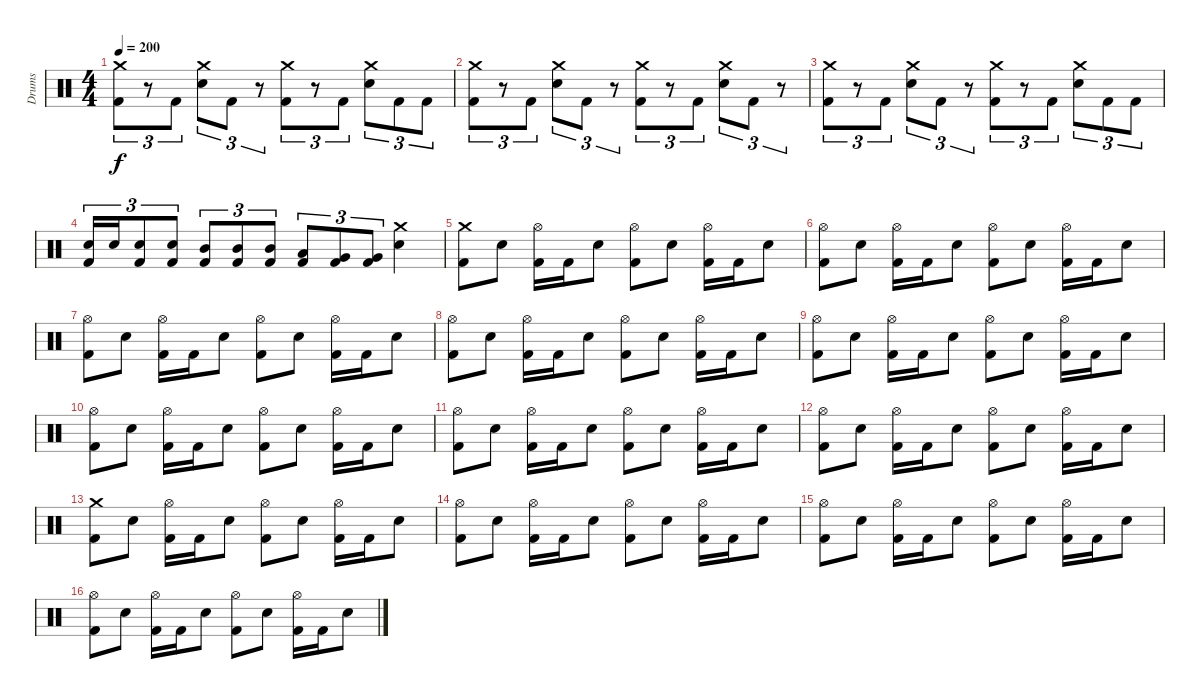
\track ("Drums" "Drums") {instrument percussion}
\staff {score}
\articulation defaults
\ts (4 4)
\tempo 200
\clef neutral
\ks c
("Crash medium (hit)" "Kick (hit) 2").8{tu (3 2) dy f} r.8{tu (3 2)} "Kick (hit) 2".8{tu (3 2)} ("Crash medium (hit)" "Electric Snare (hit)").8{tu (3 2)} "Kick (hit) 2".8{tu (3 2)} r.8{tu (3 2)} ("Crash medium (hit)" "Kick (hit) 2").8{tu (3 2)} r.8{tu (3 2)} "Kick (hit) 2".8{tu (3 2)} ("Crash medium (hit)" "Electric Snare (hit)").8{tu (3 2)} "Kick (hit) 2".8{tu (3 2)} "Kick (hit) 2".8{tu (3 2)} |
("Crash medium (hit)" "Kick (hit) 2").8{tu (3 2)} r.8{tu (3 2)} "Kick (hit) 2".8{tu (3 2)} ("Crash medium (hit)" "Electric Snare (hit)").8{tu (3 2)} "Kick (hit) 2".8{tu (3 2)} r.8{tu (3 2)} ("Crash medium (hit)" "Kick (hit) 2").8{tu (3 2)} r.8{tu (3 2)} "Kick (hit) 2".8{tu (3 2)} ("Crash medium (hit)" "Electric Snare (hit)").8{tu (3 2)} "Kick (hit) 2".8{tu (3 2)} r.8{tu (3 2)} |
("Crash medium (hit)" "Kick (hit) 2").8{tu (3 2)} r.8{tu (3 2)} "Kick (hit) 2".8{tu (3 2)} ("Crash medium (hit)" "Electric Snare (hit)").8{tu (3 2)} "Kick (hit) 2".8{tu (3 2)} r.8{tu (3 2)} ("Crash medium (hit)" "Kick (hit) 2").8{tu (3 2)} r.8{tu (3 2)} "Kick (hit) 2".8{tu (3 2)} ("Crash medium (hit)" "Electric Snare (hit)").8{tu (3 2)} "Kick (hit) 2".8{tu (3 2)} "Kick (hit) 2".8{tu (3 2)} |
("Electric Snare (hit)" "Kick (hit) 2").16{tu (3 2)} "Electric Snare (hit)".16{tu (3 2)} ("Electric Snare (hit)" "Kick (hit) 2").8{tu (3 2)} ("Electric Snare (hit)" "Kick (hit) 2").8{tu (3 2)} ("Mid Tom (hit)" "Kick (hit) 2").8{tu (3 2)} ("Mid Tom (hit)" "Kick (hit) 2").8{tu (3 2)} ("Mid Tom (hit)" "Kick (hit) 2").8{tu (3 2)} ("Low Tom (hit)" "Kick (hit) 2").8{tu (3 2)} ("Very Low Tom (hit)" "Kick (hit) 2").8{tu (3 2)} ("Very Low Tom (hit)" "Kick (hit) 2").8{tu (3 2)} ("Crash medium (hit)" "Electric Snare (hit)").4 |
("Crash medium (hit)" "Kick (hit) 2").8 "Electric Snare (hit)".8 ("Hi-Hat (open)" "Kick (hit) 2").16 "Kick (hit) 2".16 "Electric Snare (hit)".8 ("Hi-Hat (open)" "Kick (hit) 2").8 "Electric Snare (hit)".8 ("Hi-Hat (open)" "Kick (hit) 2").16 "Kick (hit) 2".16 "Electric Snare (hit)".8 |
("Hi-Hat (open)" "Kick (hit) 2").8 "Electric Snare (hit)".8 ("Hi-Hat (open)" "Kick (hit) 2").16 "Kick (hit) 2".16 "Electric Snare (hit)".8 ("Hi-Hat (open)" "Kick (hit) 2").8 "Electric Snare (hit)".8 ("Hi-Hat (open)" "Kick (hit) 2").16 "Kick (hit) 2".16 "Electric Snare (hit)".8 |
("Hi-Hat (open)" "Kick (hit) 2").8 "Electric Snare (hit)".8 ("Hi-Hat (open)" "Kick (hit) 2").16 "Kick (hit) 2".16 "Electric Snare (hit)".8 ("Hi-Hat (open)" "Kick (hit) 2").8 "Electric Snare (hit)".8 ("Hi-Hat (open)" "Kick (hit) 2").16 "Kick (hit) 2".16 "Electric Snare (hit)".8 |
("Hi-Hat (open)" "Kick (hit) 2").8 "Electric Snare (hit)".8 ("Hi-Hat (open)" "Kick (hit) 2").16 "Kick (hit) 2".16 "Electric Snare (hit)".8 ("Hi-Hat (open)" "Kick (hit) 2").8 "Electric Snare (hit)".8 ("Hi-Hat (open)" "Kick (hit) 2").16 "Kick (hit) 2".16 "Electric Snare (hit)".8 |
("Hi-Hat (open)" "Kick (hit) 2").8 "Electric Snare (hit)".8 ("Hi-Hat (open)" "Kick (hit) 2").16 "Kick (hit) 2".16 "Electric Snare (hit)".8 ("Hi-Hat (open)" "Kick (hit) 2").8 "Electric Snare (hit)".8 ("Hi-Hat (open)" "Kick (hit) 2").16 "Kick (hit) 2".16 "Electric Snare (hit)".8 |
("Hi-Hat (open)" "Kick (hit) 2").8 "Electric Snare (hit)".8 ("Hi-Hat (open)" "Kick (hit) 2").16 "Kick (hit) 2".16 "Electric Snare (hit)".8 ("Hi-Hat (open)" "Kick (hit) 2").8 "Electric Snare (hit)".8 ("Hi-Hat (open)" "Kick (hit) 2").16 "Kick (hit) 2".16 "Electric Snare (hit)".8 |
("Hi-Hat (open)" "Kick (hit) 2").8 "Electric Snare (hit)".8 ("Hi-Hat (open)" "Kick (hit) 2").16 "Kick (hit) 2".16 "Electric Snare (hit)".8 ("Hi-Hat (open)" "Kick (hit) 2").8 "Electric Snare (hit)".8 ("Hi-Hat (open)" "Kick (hit) 2").16 "Kick (hit) 2".16 "Electric Snare (hit)".8 |
("Hi-Hat (open)" "Kick (hit) 2").8 "Electric Snare (hit)".8 ("Hi-Hat (open)" "Kick (hit) 2").16 "Kick (hit) 2".16 "Electric Snare (hit)".8 ("Hi-Hat (open)" "Kick (hit) 2").8 "Electric Snare (hit)".8 ("Hi-Hat (open)" "Kick (hit) 2").16 "Kick (hit) 2".16 "Electric Snare (hit)".8 |
("Crash medium (hit)" "Kick (hit) 2").8 "Electric Snare (hit)".8 ("Hi-Hat (open)" "Kick (hit) 2").16 "Kick (hit) 2".16 "Electric Snare (hit)".8 ("Hi-Hat (open)" "Kick (hit) 2").8 "Electric Snare (hit)".8 ("Hi-Hat (open)" "Kick (hit) 2").16 "Kick (hit) 2".16 "Electric Snare (hit)".8 |
("Hi-Hat (open)" "Kick (hit) 2").8 "Electric Snare (hit)".8 ("Hi-Hat (open)" "Kick (hit) 2").16 "Kick (hit) 2".16 "Electric Snare (hit)".8 ("Hi-Hat (open)" "Kick (hit) 2").8 "Electric Snare (hit)".8 ("Hi-Hat (open)" "Kick (hit) 2").16 "Kick (hit) 2".16 "Electric Snare (hit)".8 |
("Hi-Hat (open)" "Kick (hit) 2").8 "Electric Snare (hit)".8 ("Hi-Hat (open)" "Kick (hit) 2").16 "Kick (hit) 2".16 "Electric Snare (hit)".8 ("Hi-Hat (open)" "Kick (hit) 2").8 "Electric Snare (hit)".8 ("Hi-Hat (open)" "Kick (hit) 2").16 "Kick (hit) 2".16 "Electric Snare (hit)".8 |
("Hi-Hat (open)" "Kick (hit) 2").8 "Electric Snare (hit)".8 ("Hi-Hat (open)" "Kick (hit) 2").16 "Kick (hit) 2".16 "Electric Snare (hit)".8 ("Hi-Hat (open)" "Kick (hit) 2").8 "Electric Snare (hit)".8 ("Hi-Hat (open)" "Kick (hit) 2").16 "Kick (hit) 2".16 "Electric Snare (hit)".8
